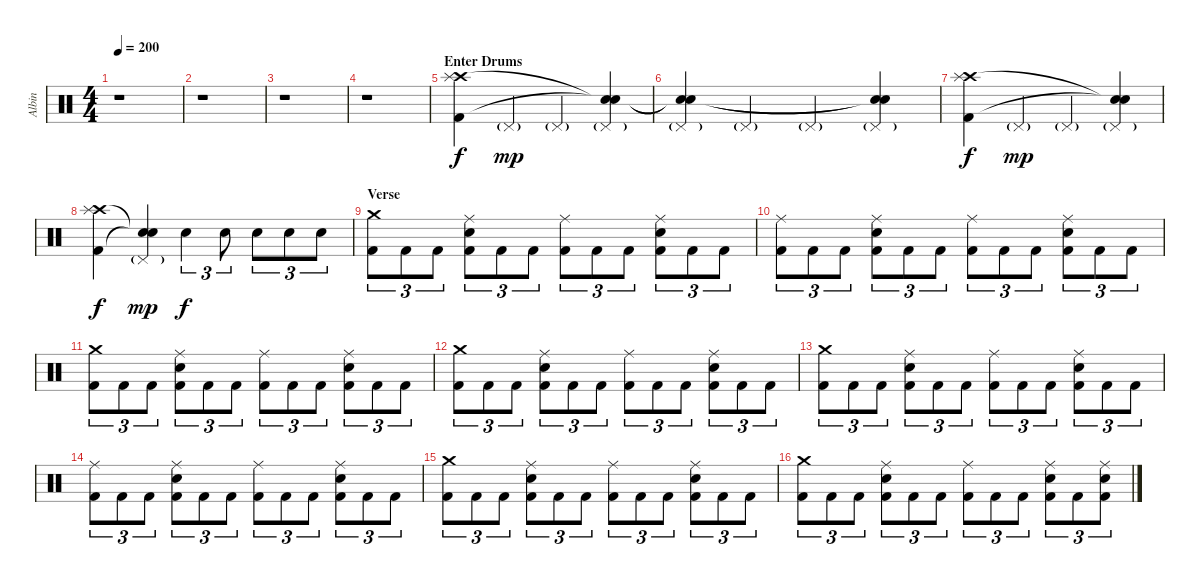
\track ("Albin" "Albin") {instrument percussion}
\staff {score}
\articulation defaults
\ts (4 4)
\tempo 200
\clef neutral
\ks c
r.1{dy f} |
r.1 |
r.1 |
r.1 |
\section ("" "Enter Drums")
("Crash high (hit)" "Splash (hit)" "Kick (hit) 2").4 "Pedal Hi-Hat (hit)"{g}.4{dy mp} "Pedal Hi-Hat (hit)"{g}.4 ("Pedal Hi-Hat (hit)"{g} "Snare (hit)"{t} "Snare (hit)"{t}).4 |
("Pedal Hi-Hat (hit)"{g} "Snare (hit)"{t} "Snare (hit)"{t}).4 "Pedal Hi-Hat (hit)"{g}.4 "Pedal Hi-Hat (hit)"{g}.4 ("Pedal Hi-Hat (hit)"{g} "Snare (hit)"{t} "Snare (hit)"{t}).4 |
("Crash high (hit)" "Splash (hit)" "Kick (hit) 2").4{dy f} "Pedal Hi-Hat (hit)"{g}.4{dy mp} "Pedal Hi-Hat (hit)"{g}.4 ("Pedal Hi-Hat (hit)"{g} "Snare (hit)"{t} "Snare (hit)"{t}).4 |
("Crash high (hit)" "Splash (hit)" "Kick (hit) 2").4{dy f} ("Pedal Hi-Hat (hit)"{g} "Snare (hit)"{t} "Snare (hit)"{t}).4{dy mp} "Electric Snare (hit)".4{tu (3 2) dy f} "Electric Snare (hit)".8{tu (3 2)} "Electric Snare (hit)".8{tu (3 2)} "Electric Snare (hit)".8{tu (3 2)} "Electric Snare (hit)".8{tu (3 2)} |
\section ("" "Verse")
("Crash medium (hit)" "Kick (hit) 2").8{tu (3 2)} "Kick (hit) 2".8{tu (3 2)} "Kick (hit) 2".8{tu (3 2)} ("Ride (middle)" "Electric Snare (hit)" "Kick (hit) 2").8{tu (3 2)} "Kick (hit) 2".8{tu (3 2)} "Kick (hit) 2".8{tu (3 2)} ("Ride (middle)" "Kick (hit) 2").8{tu (3 2)} "Kick (hit) 2".8{tu (3 2)} "Kick (hit) 2".8{tu (3 2)} ("Ride (middle)" "Electric Snare (hit)" "Kick (hit) 2").8{tu (3 2)} "Kick (hit) 2".8{tu (3 2)} "Kick (hit) 2".8{tu (3 2)} |
("Ride (middle)" "Kick (hit) 2").8{tu (3 2)} "Kick (hit) 2".8{tu (3 2)} "Kick (hit) 2".8{tu (3 2)} ("Ride (middle)" "Electric Snare (hit)" "Kick (hit) 2").8{tu (3 2)} "Kick (hit) 2".8{tu (3 2)} "Kick (hit) 2".8{tu (3 2)} ("Ride (middle)" "Kick (hit) 2").8{tu (3 2)} "Kick (hit) 2".8{tu (3 2)} "Kick (hit) 2".8{tu (3 2)} ("Ride (middle)" "Electric Snare (hit)" "Kick (hit) 2").8{tu (3 2)} "Kick (hit) 2".8{tu (3 2)} "Kick (hit) 2".8{tu (3 2)} |
("Crash medium (hit)" "Kick (hit) 2").8{tu (3 2)} "Kick (hit) 2".8{tu (3 2)} "Kick (hit) 2".8{tu (3 2)} ("Ride (middle)" "Electric Snare (hit)" "Kick (hit) 2").8{tu (3 2)} "Kick (hit) 2".8{tu (3 2)} "Kick (hit) 2".8{tu (3 2)} ("Ride (middle)" "Kick (hit) 2").8{tu (3 2)} "Kick (hit) 2".8{tu (3 2)} "Kick (hit) 2".8{tu (3 2)} ("Ride (middle)" "Electric Snare (hit)" "Kick (hit) 2").8{tu (3 2)} "Kick (hit) 2".8{tu (3 2)} "Kick (hit) 2".8{tu (3 2)} |
("Crash medium (hit)" "Kick (hit) 2").8{tu (3 2)} "Kick (hit) 2".8{tu (3 2)} "Kick (hit) 2".8{tu (3 2)} ("Ride (middle)" "Electric Snare (hit)" "Kick (hit) 2").8{tu (3 2)} "Kick (hit) 2".8{tu (3 2)} "Kick (hit) 2".8{tu (3 2)} ("Ride (middle)" "Kick (hit) 2").8{tu (3 2)} "Kick (hit) 2".8{tu (3 2)} "Kick (hit) 2".8{tu (3 2)} ("Ride (middle)" "Electric Snare (hit)" "Kick (hit) 2").8{tu (3 2)} "Kick (hit) 2".8{tu (3 2)} "Kick (hit) 2".8{tu (3 2)} |
("Crash medium (hit)" "Kick (hit) 2").8{tu (3 2)} "Kick (hit) 2".8{tu (3 2)} "Kick (hit) 2".8{tu (3 2)} ("Ride (middle)" "Electric Snare (hit)" "Kick (hit) 2").8{tu (3 2)} "Kick (hit) 2".8{tu (3 2)} "Kick (hit) 2".8{tu (3 2)} ("Ride (middle)" "Kick (hit) 2").8{tu (3 2)} "Kick (hit) 2".8{tu (3 2)} "Kick (hit) 2".8{tu (3 2)} ("Ride (middle)" "Electric Snare (hit)" "Kick (hit) 2").8{tu (3 2)} "Kick (hit) 2".8{tu (3 2)} "Kick (hit) 2".8{tu (3 2)} |
("Ride (middle)" "Kick (hit) 2").8{tu (3 2)} "Kick (hit) 2".8{tu (3 2)} "Kick (hit) 2".8{tu (3 2)} ("Ride (middle)" "Electric Snare (hit)" "Kick (hit) 2").8{tu (3 2)} "Kick (hit) 2".8{tu (3 2)} "Kick (hit) 2".8{tu (3 2)} ("Ride (middle)" "Kick (hit) 2").8{tu (3 2)} "Kick (hit) 2".8{tu (3 2)} "Kick (hit) 2".8{tu (3 2)} ("Ride (middle)" "Electric Snare (hit)" "Kick (hit) 2").8{tu (3 2)} "Kick (hit) 2".8{tu (3 2)} "Kick (hit) 2".8{tu (3 2)} |
("Crash medium (hit)" "Kick (hit) 2").8{tu (3 2)} "Kick (hit) 2".8{tu (3 2)} "Kick (hit) 2".8{tu (3 2)} ("Ride (middle)" "Electric Snare (hit)" "Kick (hit) 2").8{tu (3 2)} "Kick (hit) 2".8{tu (3 2)} "Kick (hit) 2".8{tu (3 2)} ("Ride (middle)" "Kick (hit) 2").8{tu (3 2)} "Kick (hit) 2".8{tu (3 2)} "Kick (hit) 2".8{tu (3 2)} ("Ride (middle)" "Electric Snare (hit)" "Kick (hit) 2").8{tu (3 2)} "Kick (hit) 2".8{tu (3 2)} "Kick (hit) 2".8{tu (3 2)} |
("Crash medium (hit)" "Kick (hit) 2").8{tu (3 2)} "Kick (hit) 2".8{tu (3 2)} "Kick (hit) 2".8{tu (3 2)} ("Ride (middle)" "Electric Snare (hit)" "Kick (hit) 2").8{tu (3 2)} "Kick (hit) 2".8{tu (3 2)} "Kick (hit) 2".8{tu (3 2)} ("Ride (middle)" "Kick (hit) 2").8{tu (3 2)} "Kick (hit) 2".8{tu (3 2)} "Kick (hit) 2".8{tu (3 2)} ("Ride (middle)" "Electric Snare (hit)" "Kick (hit) 2").8{tu (3 2)} "Kick (hit) 2".8{tu (3 2)} ("Ride (middle)" "Electric Snare (hit)" "Kick (hit) 2").8{tu (3 2)}
